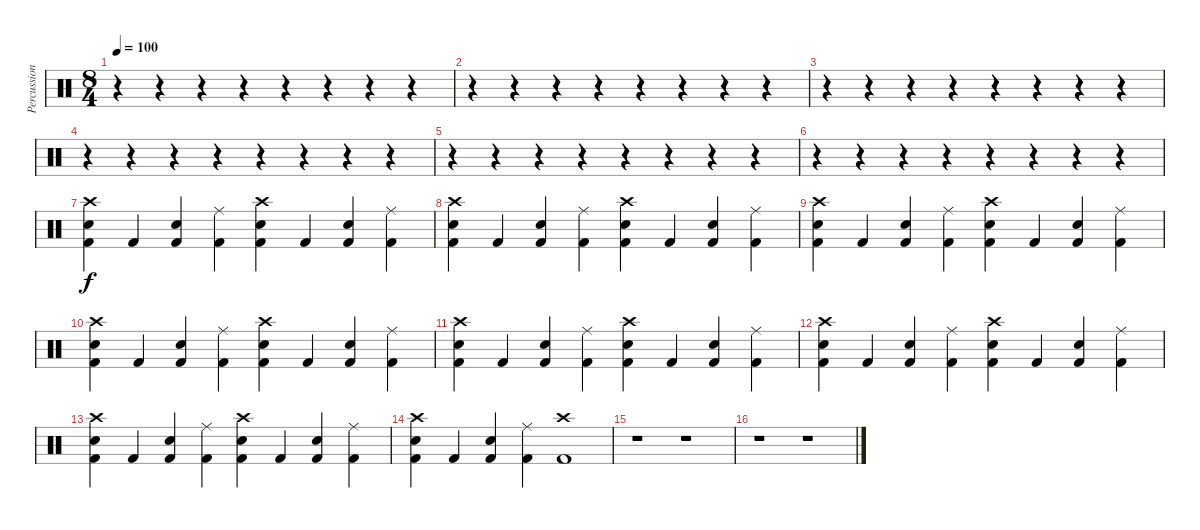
\track ("Percussions" "Percussion") {instrument percussion}
\staff {score}
\articulation defaults
\ts (8 4)
\tempo 100
\clef neutral
\ks c
r.4{dy f} r.4 r.4 r.4 r.4 r.4 r.4 r.4 |
r.4 r.4 r.4 r.4 r.4 r.4 r.4 r.4 |
r.4 r.4 r.4 r.4 r.4 r.4 r.4 r.4 |
r.4 r.4 r.4 r.4 r.4 r.4 r.4 r.4 |
r.4 r.4 r.4 r.4 r.4 r.4 r.4 r.4 |
r.4 r.4 r.4 r.4 r.4 r.4 r.4 r.4 |
("Crash high (hit)" "Electric Snare (hit)" "Kick (hit) 2").4 "Kick (hit) 2".4 ("Electric Snare (hit)" "Kick (hit) 2").4 ("Ride (middle)" "Kick (hit) 2").4 ("Crash high (hit)" "Electric Snare (hit)" "Kick (hit) 2").4 "Kick (hit) 2".4 ("Electric Snare (hit)" "Kick (hit) 2").4 ("Ride (middle)" "Kick (hit) 2").4 |
("Crash high (hit)" "Electric Snare (hit)" "Kick (hit) 2").4 "Kick (hit) 2".4 ("Electric Snare (hit)" "Kick (hit) 2").4 ("Ride (middle)" "Kick (hit) 2").4 ("Crash high (hit)" "Electric Snare (hit)" "Kick (hit) 2").4 "Kick (hit) 2".4 ("Electric Snare (hit)" "Kick (hit) 2").4 ("Ride (middle)" "Kick (hit) 2").4 |
("Crash high (hit)" "Electric Snare (hit)" "Kick (hit) 2").4 "Kick (hit) 2".4 ("Electric Snare (hit)" "Kick (hit) 2").4 ("Ride (middle)" "Kick (hit) 2").4 ("Crash high (hit)" "Electric Snare (hit)" "Kick (hit) 2").4 "Kick (hit) 2".4 ("Electric Snare (hit)" "Kick (hit) 2").4 ("Ride (middle)" "Kick (hit) 2").4 |
("Crash high (hit)" "Electric Snare (hit)" "Kick (hit) 2").4 "Kick (hit) 2".4 ("Electric Snare (hit)" "Kick (hit) 2").4 ("Ride (middle)" "Kick (hit) 2").4 ("Crash high (hit)" "Electric Snare (hit)" "Kick (hit) 2").4 "Kick (hit) 2".4 ("Electric Snare (hit)" "Kick (hit) 2").4 ("Ride (middle)" "Kick (hit) 2").4 |
("Crash high (hit)" "Electric Snare (hit)" "Kick (hit) 2").4 "Kick (hit) 2".4 ("Electric Snare (hit)" "Kick (hit) 2").4 ("Ride (middle)" "Kick (hit) 2").4 ("Crash high (hit)" "Electric Snare (hit)" "Kick (hit) 2").4 "Kick (hit) 2".4 ("Electric Snare (hit)" "Kick (hit) 2").4 ("Ride (middle)" "Kick (hit) 2").4 |
("Crash high (hit)" "Electric Snare (hit)" "Kick (hit) 2").4 "Kick (hit) 2".4 ("Electric Snare (hit)" "Kick (hit) 2").4 ("Ride (middle)" "Kick (hit) 2").4 ("Crash high (hit)" "Electric Snare (hit)" "Kick (hit) 2").4 "Kick (hit) 2".4 ("Electric Snare (hit)" "Kick (hit) 2").4 ("Ride (middle)" "Kick (hit) 2").4 |
("Crash high (hit)" "Electric Snare (hit)" "Kick (hit) 2").4 "Kick (hit) 2".4 ("Electric Snare (hit)" "Kick (hit) 2").4 ("Ride (middle)" "Kick (hit) 2").4 ("Crash high (hit)" "Electric Snare (hit)" "Kick (hit) 2").4 "Kick (hit) 2".4 ("Electric Snare (hit)" "Kick (hit) 2").4 ("Ride (middle)" "Kick (hit) 2").4 |
("Crash high (hit)" "Electric Snare (hit)" "Kick (hit) 2").4 "Kick (hit) 2".4 ("Electric Snare (hit)" "Kick (hit) 2").4 ("Ride (middle)" "Kick (hit) 2").4 ("Crash high (hit)" "Kick (hit) 2").1 |
r.1 r.1 |
r.1 r.1
